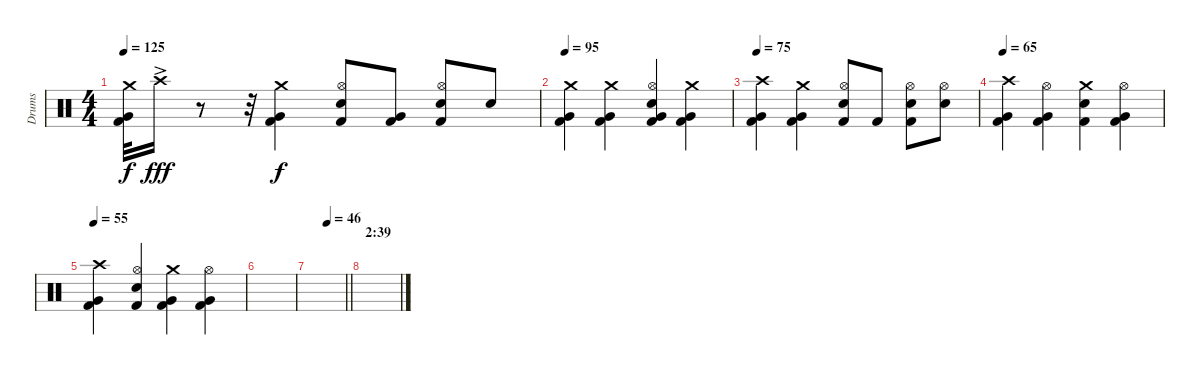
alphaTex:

\track ("Drums" "Drums") {instrument percussion}
\staff {score}
\articulation defaults
\ts (4 4)
\tempo 125
\clef neutral
\ks c
("Crash medium (hit)" "Very Low Tom (hit)" "Kick (hit) 2").32{dy f} "Crash high (hit)"{ac}.16{dy fff} r.8 r.32 ("Crash medium (hit)" "Very Low Tom (hit)" "Kick (hit) 2").4{dy f} ("Hi-Hat (open)" "Electric Snare (hit)" "Kick (hit) 2").8 ("Very Low Tom (hit)" "Kick (hit) 2").8 ("Hi-Hat (open)" "Electric Snare (hit)" "Kick (hit) 2").8 "Electric Snare (hit)".8 |
\tempo 95
("Crash medium (hit)" "Very Low Tom (hit)" "Kick (hit) 2").4 ("Crash medium (hit)" "Very Low Tom (hit)" "Kick (hit) 2").4 ("Hi-Hat (open)" "Electric Snare (hit)" "Very Low Tom (hit)" "Kick (hit) 2").4 ("Crash medium (hit)" "Very Low Tom (hit)" "Kick (hit) 2").4 |
\tempo 75
("Crash high (hit)" "Very Low Tom (hit)" "Kick (hit) 2").4 ("Crash medium (hit)" "Very Low Tom (hit)" "Kick (hit) 2").4 ("Hi-Hat (open)" "Electric Snare (hit)" "Kick (hit) 2").8 "Kick (hit) 2".8 ("Hi-Hat (open)" "Electric Snare (hit)" "Kick (hit) 2").8 ("Hi-Hat (open)" "Electric Snare (hit)").8 |
\tempo 65
("Crash high (hit)" "Very Low Tom (hit)" "Kick (hit) 2").4 ("Hi-Hat (open)" "Very Low Tom (hit)" "Kick (hit) 2").4 ("Crash medium (hit)" "Electric Snare (hit)" "Kick (hit) 2").4 ("Hi-Hat (open)" "Very Low Tom (hit)" "Kick (hit) 2").4 |
\tempo 55
("Crash high (hit)" "Very Low Tom (hit)" "Kick (hit) 2").4 ("Hi-Hat (open)" "Electric Snare (hit)" "Kick (hit) 2").4 ("Crash medium (hit)" "Very Low Tom (hit)" "Kick (hit) 2").4 ("Hi-Hat (open)" "Very Low Tom (hit)" "Kick (hit) 2").4 |
|
\tempo (46 0.5)
\barLineRight lightlight
|
\section ("" "2:39")
